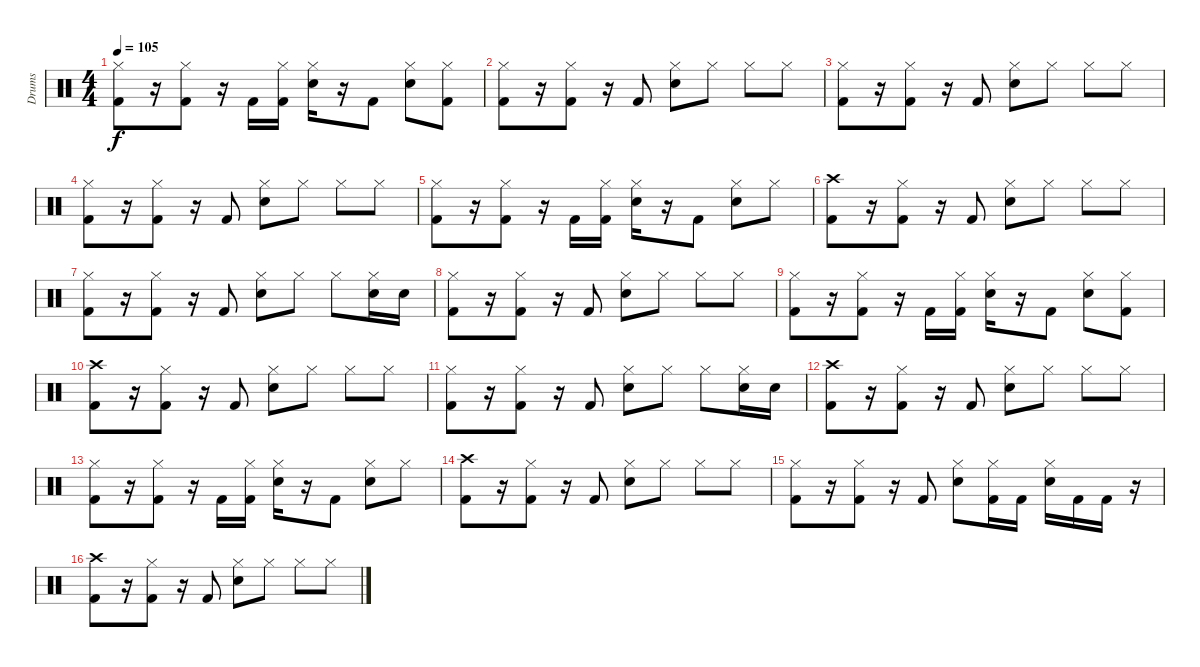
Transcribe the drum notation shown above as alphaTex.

\track ("Drums" "Drums") {instrument percussion}
\staff {score}
\articulation defaults
\ts (4 4)
\tempo 105
\clef neutral
\ks c
("Hi-Hat (closed)" "Kick (hit) 2").8{dy f} r.16 ("Hi-Hat (closed)" "Kick (hit) 2").8 r.16 "Kick (hit) 2".16 ("Hi-Hat (closed)" "Kick (hit) 2").16 ("Electric Snare (hit)" "Hi-Hat (closed)").16 r.16 "Kick (hit) 2".8 ("Hi-Hat (closed)" "Electric Snare (hit)").8 ("Hi-Hat (closed)" "Kick (hit) 2").8 |
("Hi-Hat (closed)" "Kick (hit) 2").8 r.16 ("Hi-Hat (closed)" "Kick (hit) 2").8 r.16 "Kick (hit) 2".8 ("Hi-Hat (closed)" "Electric Snare (hit)").8 "Hi-Hat (closed)".8 "Hi-Hat (closed)".8 "Hi-Hat (closed)".8 |
("Hi-Hat (closed)" "Kick (hit) 2").8 r.16 ("Hi-Hat (closed)" "Kick (hit) 2").8 r.16 "Kick (hit) 2".8 ("Hi-Hat (closed)" "Electric Snare (hit)").8 "Hi-Hat (closed)".8 "Hi-Hat (closed)".8 "Hi-Hat (closed)".8 |
("Hi-Hat (closed)" "Kick (hit) 2").8 r.16 ("Hi-Hat (closed)" "Kick (hit) 2").8 r.16 "Kick (hit) 2".8 ("Hi-Hat (closed)" "Electric Snare (hit)").8 "Hi-Hat (closed)".8 "Hi-Hat (closed)".8 "Hi-Hat (closed)".8 |
("Hi-Hat (closed)" "Kick (hit) 2").8 r.16 ("Hi-Hat (closed)" "Kick (hit) 2").8 r.16 "Kick (hit) 2".16 ("Hi-Hat (closed)" "Kick (hit) 2").16 ("Electric Snare (hit)" "Hi-Hat (closed)").16 r.16 "Kick (hit) 2".8 ("Hi-Hat (closed)" "Electric Snare (hit)").8 "Hi-Hat (closed)".8 |
("Crash high (hit)" "Kick (hit) 2").8 r.16 ("Hi-Hat (closed)" "Kick (hit) 2").8 r.16 "Kick (hit) 2".8 ("Hi-Hat (closed)" "Electric Snare (hit)").8 "Hi-Hat (closed)".8 "Hi-Hat (closed)".8 "Hi-Hat (closed)".8 |
("Hi-Hat (closed)" "Kick (hit) 2").8 r.16 ("Hi-Hat (closed)" "Kick (hit) 2").8 r.16 "Kick (hit) 2".8 ("Hi-Hat (closed)" "Electric Snare (hit)").8 "Hi-Hat (closed)".8 "Hi-Hat (closed)".8 ("Hi-Hat (closed)" "Electric Snare (hit)").16 "Electric Snare (hit)".16 |
("Hi-Hat (closed)" "Kick (hit) 2").8 r.16 ("Hi-Hat (closed)" "Kick (hit) 2").8 r.16 "Kick (hit) 2".8 ("Hi-Hat (closed)" "Electric Snare (hit)").8 "Hi-Hat (closed)".8 "Hi-Hat (closed)".8 "Hi-Hat (closed)".8 |
("Hi-Hat (closed)" "Kick (hit) 2").8 r.16 ("Hi-Hat (closed)" "Kick (hit) 2").8 r.16 "Kick (hit) 2".16 ("Hi-Hat (closed)" "Kick (hit) 2").16 ("Electric Snare (hit)" "Hi-Hat (closed)").16 r.16 "Kick (hit) 2".8 ("Hi-Hat (closed)" "Electric Snare (hit)").8 ("Hi-Hat (closed)" "Kick (hit) 2").8 |
("Crash high (hit)" "Kick (hit) 2").8 r.16 ("Hi-Hat (closed)" "Kick (hit) 2").8 r.16 "Kick (hit) 2".8 ("Hi-Hat (closed)" "Electric Snare (hit)").8 "Hi-Hat (closed)".8 "Hi-Hat (closed)".8 "Hi-Hat (closed)".8 |
("Hi-Hat (closed)" "Kick (hit) 2").8 r.16 ("Hi-Hat (closed)" "Kick (hit) 2").8 r.16 "Kick (hit) 2".8 ("Hi-Hat (closed)" "Electric Snare (hit)").8 "Hi-Hat (closed)".8 "Hi-Hat (closed)".8 ("Hi-Hat (closed)" "Electric Snare (hit)").16 "Electric Snare (hit)".16 |
("Crash high (hit)" "Kick (hit) 2").8 r.16 ("Hi-Hat (closed)" "Kick (hit) 2").8 r.16 "Kick (hit) 2".8 ("Hi-Hat (closed)" "Electric Snare (hit)").8 "Hi-Hat (closed)".8 "Hi-Hat (closed)".8 "Hi-Hat (closed)".8 |
("Hi-Hat (closed)" "Kick (hit) 2").8 r.16 ("Hi-Hat (closed)" "Kick (hit) 2").8 r.16 "Kick (hit) 2".16 ("Hi-Hat (closed)" "Kick (hit) 2").16 ("Electric Snare (hit)" "Hi-Hat (closed)").16 r.16 "Kick (hit) 2".8 ("Hi-Hat (closed)" "Electric Snare (hit)").8 "Hi-Hat (closed)".8 |
("Crash high (hit)" "Kick (hit) 2").8 r.16 ("Hi-Hat (closed)" "Kick (hit) 2").8 r.16 "Kick (hit) 2".8 ("Hi-Hat (closed)" "Electric Snare (hit)").8 "Hi-Hat (closed)".8 "Hi-Hat (closed)".8 "Hi-Hat (closed)".8 |
("Hi-Hat (closed)" "Kick (hit) 2").8 r.16 ("Hi-Hat (closed)" "Kick (hit) 2").8 r.16 "Kick (hit) 2".8 ("Hi-Hat (closed)" "Electric Snare (hit)").8 ("Hi-Hat (closed)" "Kick (hit) 2").16 "Kick (hit) 2".16 ("Hi-Hat (closed)" "Electric Snare (hit)").16 "Kick (hit) 2".16 "Kick (hit) 2".16 r.16 |
("Crash high (hit)" "Kick (hit) 2").8 r.16 ("Hi-Hat (closed)" "Kick (hit) 2").8 r.16 "Kick (hit) 2".8 ("Hi-Hat (closed)" "Electric Snare (hit)").8 "Hi-Hat (closed)".8 "Hi-Hat (closed)".8 "Hi-Hat (closed)".8
